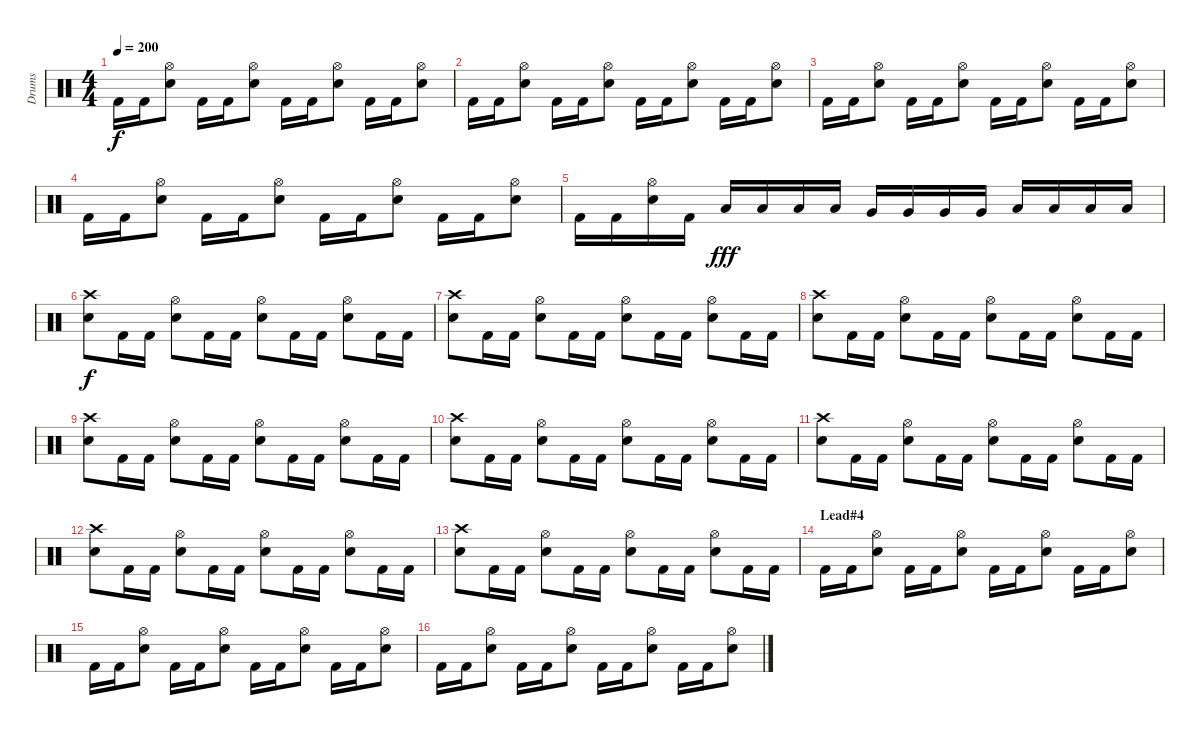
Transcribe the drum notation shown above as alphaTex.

\track ("Drums" "Drums") {instrument percussion}
\staff {score}
\articulation defaults
\ts (4 4)
\tempo 200
\clef neutral
\ks c "Kick (hit) 2".16{dy f} "Kick (hit) 2".16
("Hi-Hat (open)" "Snare (hit) 2").8 "Kick (hit) 2".16 "Kick (hit) 2".16 ("Hi-Hat (open)" "Snare (hit) 2").8 "Kick (hit) 2".16 "Kick (hit) 2".16 ("Hi-Hat (open)" "Snare (hit) 2").8 "Kick (hit) 2".16 "Kick (hit) 2".16 ("Hi-Hat (open)" "Snare (hit) 2").8 |
"Kick (hit) 2".16 "Kick (hit) 2".16 ("Hi-Hat (open)" "Snare (hit) 2").8 "Kick (hit) 2".16 "Kick (hit) 2".16 ("Hi-Hat (open)" "Snare (hit) 2").8 "Kick (hit) 2".16 "Kick (hit) 2".16 ("Hi-Hat (open)" "Snare (hit) 2").8 "Kick (hit) 2".16 "Kick (hit) 2".16 ("Hi-Hat (open)" "Snare (hit) 2").8 |
"Kick (hit) 2".16 "Kick (hit) 2".16 ("Hi-Hat (open)" "Snare (hit) 2").8 "Kick (hit) 2".16 "Kick (hit) 2".16 ("Hi-Hat (open)" "Snare (hit) 2").8 "Kick (hit) 2".16 "Kick (hit) 2".16 ("Hi-Hat (open)" "Snare (hit) 2").8 "Kick (hit) 2".16 "Kick (hit) 2".16 ("Hi-Hat (open)" "Snare (hit) 2").8 |
"Kick (hit) 2".16 "Kick (hit) 2".16 ("Hi-Hat (open)" "Snare (hit) 2").8 "Kick (hit) 2".16 "Kick (hit) 2".16 ("Hi-Hat (open)" "Snare (hit) 2").8 "Kick (hit) 2".16 "Kick (hit) 2".16 ("Hi-Hat (open)" "Snare (hit) 2").8 "Kick (hit) 2".16 "Kick (hit) 2".16 ("Hi-Hat (open)" "Snare (hit) 2").8 |
"Kick (hit) 2".16 "Kick (hit) 2".16 ("Hi-Hat (open)" "Snare (hit) 2").16 "Kick (hit) 2".16 "Low Floor Tom (hit)".16{dy fff} "Low Floor Tom (hit)".16 "Low Floor Tom (hit)".16 "Low Floor Tom (hit)".16 "Very Low Tom (hit)".16 "Very Low Tom (hit)".16 "Very Low Tom (hit)".16 "Very Low Tom (hit)".16 "Low Tom (hit)".16 "Low Tom (hit)".16 "Low Tom (hit)".16 "Low Tom (hit)".16 |
("Crash high (hit)" "Snare (hit) 2").8{dy f} "Kick (hit) 2".16 "Kick (hit) 2".16 ("Hi-Hat (open)" "Snare (hit) 2").8 "Kick (hit) 2".16 "Kick (hit) 2".16 ("Hi-Hat (open)" "Snare (hit) 2").8 "Kick (hit) 2".16 "Kick (hit) 2".16 ("Hi-Hat (open)" "Snare (hit) 2").8 "Kick (hit) 2".16 "Kick (hit) 2".16 |
("Crash high (hit)" "Snare (hit) 2").8 "Kick (hit) 2".16 "Kick (hit) 2".16 ("Hi-Hat (open)" "Snare (hit) 2").8 "Kick (hit) 2".16 "Kick (hit) 2".16 ("Hi-Hat (open)" "Snare (hit) 2").8 "Kick (hit) 2".16 "Kick (hit) 2".16 ("Hi-Hat (open)" "Snare (hit) 2").8 "Kick (hit) 2".16 "Kick (hit) 2".16 |
("Crash high (hit)" "Snare (hit) 2").8 "Kick (hit) 2".16 "Kick (hit) 2".16 ("Hi-Hat (open)" "Snare (hit) 2").8 "Kick (hit) 2".16 "Kick (hit) 2".16 ("Hi-Hat (open)" "Snare (hit) 2").8 "Kick (hit) 2".16 "Kick (hit) 2".16 ("Hi-Hat (open)" "Snare (hit) 2").8 "Kick (hit) 2".16 "Kick (hit) 2".16 |
("Crash high (hit)" "Snare (hit) 2").8 "Kick (hit) 2".16 "Kick (hit) 2".16 ("Hi-Hat (open)" "Snare (hit) 2").8 "Kick (hit) 2".16 "Kick (hit) 2".16 ("Hi-Hat (open)" "Snare (hit) 2").8 "Kick (hit) 2".16 "Kick (hit) 2".16 ("Hi-Hat (open)" "Snare (hit) 2").8 "Kick (hit) 2".16 "Kick (hit) 2".16 |
("Crash high (hit)" "Snare (hit) 2").8 "Kick (hit) 2".16 "Kick (hit) 2".16 ("Hi-Hat (open)" "Snare (hit) 2").8 "Kick (hit) 2".16 "Kick (hit) 2".16 ("Hi-Hat (open)" "Snare (hit) 2").8 "Kick (hit) 2".16 "Kick (hit) 2".16 ("Hi-Hat (open)" "Snare (hit) 2").8 "Kick (hit) 2".16 "Kick (hit) 2".16 |
("Crash high (hit)" "Snare (hit) 2").8 "Kick (hit) 2".16 "Kick (hit) 2".16 ("Hi-Hat (open)" "Snare (hit) 2").8 "Kick (hit) 2".16 "Kick (hit) 2".16 ("Hi-Hat (open)" "Snare (hit) 2").8 "Kick (hit) 2".16 "Kick (hit) 2".16 ("Hi-Hat (open)" "Snare (hit) 2").8 "Kick (hit) 2".16 "Kick (hit) 2".16 |
("Crash high (hit)" "Snare (hit) 2").8 "Kick (hit) 2".16 "Kick (hit) 2".16 ("Hi-Hat (open)" "Snare (hit) 2").8 "Kick (hit) 2".16 "Kick (hit) 2".16 ("Hi-Hat (open)" "Snare (hit) 2").8 "Kick (hit) 2".16 "Kick (hit) 2".16 ("Hi-Hat (open)" "Snare (hit) 2").8 "Kick (hit) 2".16 "Kick (hit) 2".16 |
("Crash high (hit)" "Snare (hit) 2").8 "Kick (hit) 2".16 "Kick (hit) 2".16 ("Hi-Hat (open)" "Snare (hit) 2").8 "Kick (hit) 2".16 "Kick (hit) 2".16 ("Hi-Hat (open)" "Snare (hit) 2").8 "Kick (hit) 2".16 "Kick (hit) 2".16 ("Hi-Hat (open)" "Snare (hit) 2").8 "Kick (hit) 2".16 "Kick (hit) 2".16 |
\section ("" "Lead#4")
"Kick (hit) 2".16 "Kick (hit) 2".16 ("Hi-Hat (open)" "Snare (hit) 2").8 "Kick (hit) 2".16 "Kick (hit) 2".16 ("Hi-Hat (open)" "Snare (hit) 2").8 "Kick (hit) 2".16 "Kick (hit) 2".16 ("Hi-Hat (open)" "Snare (hit) 2").8 "Kick (hit) 2".16 "Kick (hit) 2".16 ("Hi-Hat (open)" "Snare (hit) 2").8 |
"Kick (hit) 2".16 "Kick (hit) 2".16 ("Hi-Hat (open)" "Snare (hit) 2").8 "Kick (hit) 2".16 "Kick (hit) 2".16 ("Hi-Hat (open)" "Snare (hit) 2").8 "Kick (hit) 2".16 "Kick (hit) 2".16 ("Hi-Hat (open)" "Snare (hit) 2").8 "Kick (hit) 2".16 "Kick (hit) 2".16 ("Hi-Hat (open)" "Snare (hit) 2").8 |
"Kick (hit) 2".16 "Kick (hit) 2".16 ("Hi-Hat (open)" "Snare (hit) 2").8 "Kick (hit) 2".16 "Kick (hit) 2".16 ("Hi-Hat (open)" "Snare (hit) 2").8 "Kick (hit) 2".16 "Kick (hit) 2".16 ("Hi-Hat (open)" "Snare (hit) 2").8 "Kick (hit) 2".16 "Kick (hit) 2".16 ("Hi-Hat (open)" "Snare (hit) 2").8
